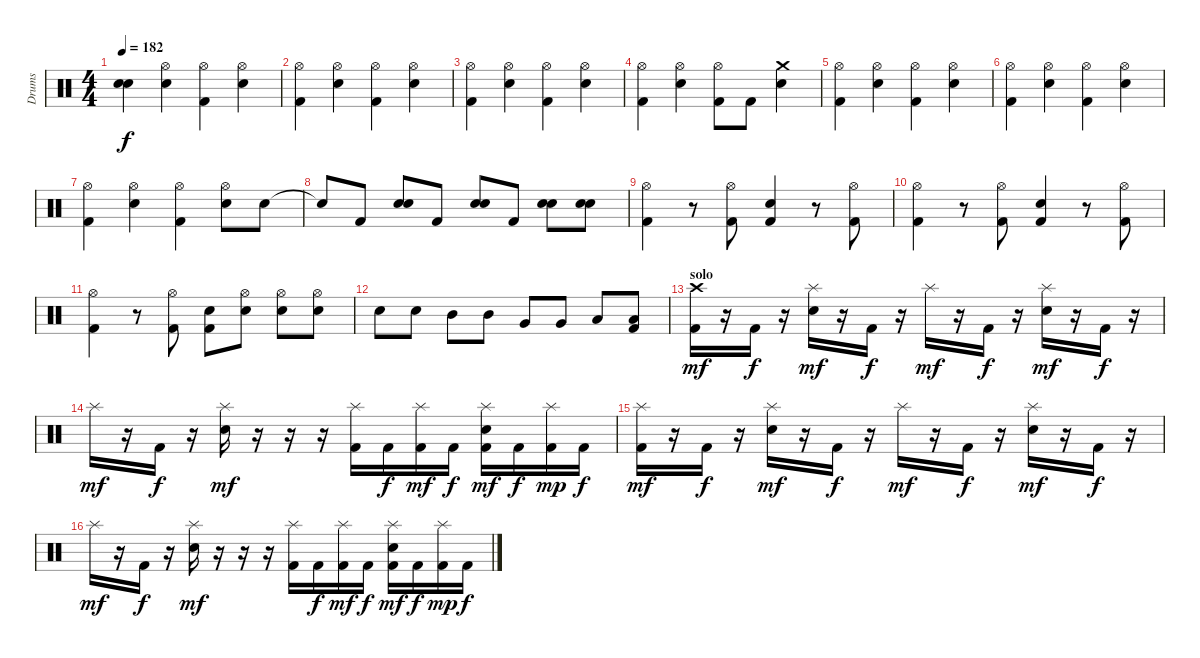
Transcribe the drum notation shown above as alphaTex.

\track ("Drums" "Drums") {instrument percussion}
\staff {score}
\articulation defaults
\ts (4 4)
\tempo 182
\clef neutral
\ks c
("Snare (hit)"{t} "Snare (hit)"{t}).4{dy f} ("Snare (hit) 2" "Hi-Hat (open)").4 ("Kick (hit) 2" "Hi-Hat (open)").4 ("Snare (hit) 2" "Hi-Hat (open)").4 |
("Kick (hit) 2" "Hi-Hat (open)").4 ("Snare (hit) 2" "Hi-Hat (open)").4 ("Kick (hit) 2" "Hi-Hat (open)").4 ("Snare (hit) 2" "Hi-Hat (open)").4 |
("Kick (hit) 2" "Hi-Hat (open)").4 ("Snare (hit) 2" "Hi-Hat (open)").4 ("Kick (hit) 2" "Hi-Hat (open)").4 ("Snare (hit) 2" "Hi-Hat (open)").4 |
("Kick (hit) 2" "Hi-Hat (open)").4 ("Snare (hit) 2" "Hi-Hat (open)").4 ("Kick (hit) 2" "Hi-Hat (open)").8 "Kick (hit) 2".8 ("Snare (hit) 2" "Crash medium (hit)").4 |
("Kick (hit) 2" "Hi-Hat (open)").4 ("Snare (hit) 2" "Hi-Hat (open)").4 ("Kick (hit) 2" "Hi-Hat (open)").4 ("Snare (hit) 2" "Hi-Hat (open)").4 |
("Kick (hit) 2" "Hi-Hat (open)").4 ("Snare (hit) 2" "Hi-Hat (open)").4 ("Kick (hit) 2" "Hi-Hat (open)").4 ("Snare (hit) 2" "Hi-Hat (open)").4 |
("Kick (hit) 2" "Hi-Hat (open)").4 ("Snare (hit) 2" "Hi-Hat (open)").4 ("Kick (hit) 2" "Hi-Hat (open)").4 ("Snare (hit) 2" "Hi-Hat (open)").8 "Snare (hit) 2".8 |
"Snare (hit)"{t}.8 "Kick (hit) 2".8 ("Snare (hit) 2" "Electric Snare (hit)").8 "Kick (hit) 2".8 ("Snare (hit) 2" "Electric Snare (hit)").8 "Kick (hit) 2".8 ("Snare (hit) 2" "Electric Snare (hit)").8 ("Snare (hit) 2" "Electric Snare (hit)").8 |
("Kick (hit) 2" "Hi-Hat (open)").4 r.8 ("Kick (hit) 2" "Hi-Hat (open)").8 ("Kick (hit) 2" "Snare (hit) 2").4 r.8 ("Kick (hit) 2" "Hi-Hat (open)").8 |
("Kick (hit) 2" "Hi-Hat (open)").4 r.8 ("Kick (hit) 2" "Hi-Hat (open)").8 ("Kick (hit) 2" "Snare (hit) 2").4 r.8 ("Kick (hit) 2" "Hi-Hat (open)").8 |
("Kick (hit) 2" "Hi-Hat (open)").4 r.8 ("Kick (hit) 2" "Hi-Hat (open)").8 ("Kick (hit) 2" "Snare (hit) 2").8 ("Snare (hit) 2" "Hi-Hat (open)").8 ("Snare (hit) 2" "Hi-Hat (open)").8 ("Snare (hit) 2" "Hi-Hat (open)").8 |
"Electric Snare (hit)".8 "Electric Snare (hit)".8 "Mid Tom (hit)".8 "Mid Tom (hit)".8 "Very Low Tom (hit)".8 "Very Low Tom (hit)".8 "Low Floor Tom (hit)".8 ("Low Floor Tom (hit)" "Kick (hit) 2").8 |
\section ("" "solo")
("Kick (hit) 2" "Crash high (hit)").16{dy mf} r.16 "Kick (hit) 2".16{dy f} r.16 ("Snare (hit) 2" "Splash (hit)").16{dy mf} r.16 "Kick (hit) 2".16{dy f} r.16 "Splash (hit)".16{dy mf} r.16 "Kick (hit) 2".16{dy f} r.16 ("Snare (hit) 2" "Splash (hit)").16{dy mf} r.16 "Kick (hit) 2".16{dy f} r.16 |
"Splash (hit)".16{dy mf} r.16 "Kick (hit) 2".16{dy f} r.16 ("Snare (hit) 2" "Splash (hit)").16{dy mf} r.16 r.16 r.16 ("Kick (hit) 2" "Splash (hit)").16 "Kick (hit) 2".16{dy f} ("Kick (hit) 2" "Splash (hit)").16{dy mf} "Kick (hit) 2".16{dy f} ("Kick (hit) 2" "Snare (hit) 2" "Splash (hit)").16{dy mf} "Kick (hit) 2".16{dy f} ("Kick (hit) 2" "Splash (hit)").16{dy mp} "Kick (hit) 2".16{dy f} |
("Kick (hit) 2" "Splash (hit)").16{dy mf} r.16 "Kick (hit) 2".16{dy f} r.16 ("Snare (hit) 2" "Splash (hit)").16{dy mf} r.16 "Kick (hit) 2".16{dy f} r.16 "Splash (hit)".16{dy mf} r.16 "Kick (hit) 2".16{dy f} r.16 ("Snare (hit) 2" "Splash (hit)").16{dy mf} r.16 "Kick (hit) 2".16{dy f} r.16 |
"Splash (hit)".16{dy mf} r.16 "Kick (hit) 2".16{dy f} r.16 ("Snare (hit) 2" "Splash (hit)").16{dy mf} r.16 r.16 r.16 ("Kick (hit) 2" "Splash (hit)").16 "Kick (hit) 2".16{dy f} ("Kick (hit) 2" "Splash (hit)").16{dy mf} "Kick (hit) 2".16{dy f} ("Kick (hit) 2" "Snare (hit) 2" "Splash (hit)").16{dy mf} "Kick (hit) 2".16{dy f} ("Kick (hit) 2" "Splash (hit)").16{dy mp} "Kick (hit) 2".16{dy f}
